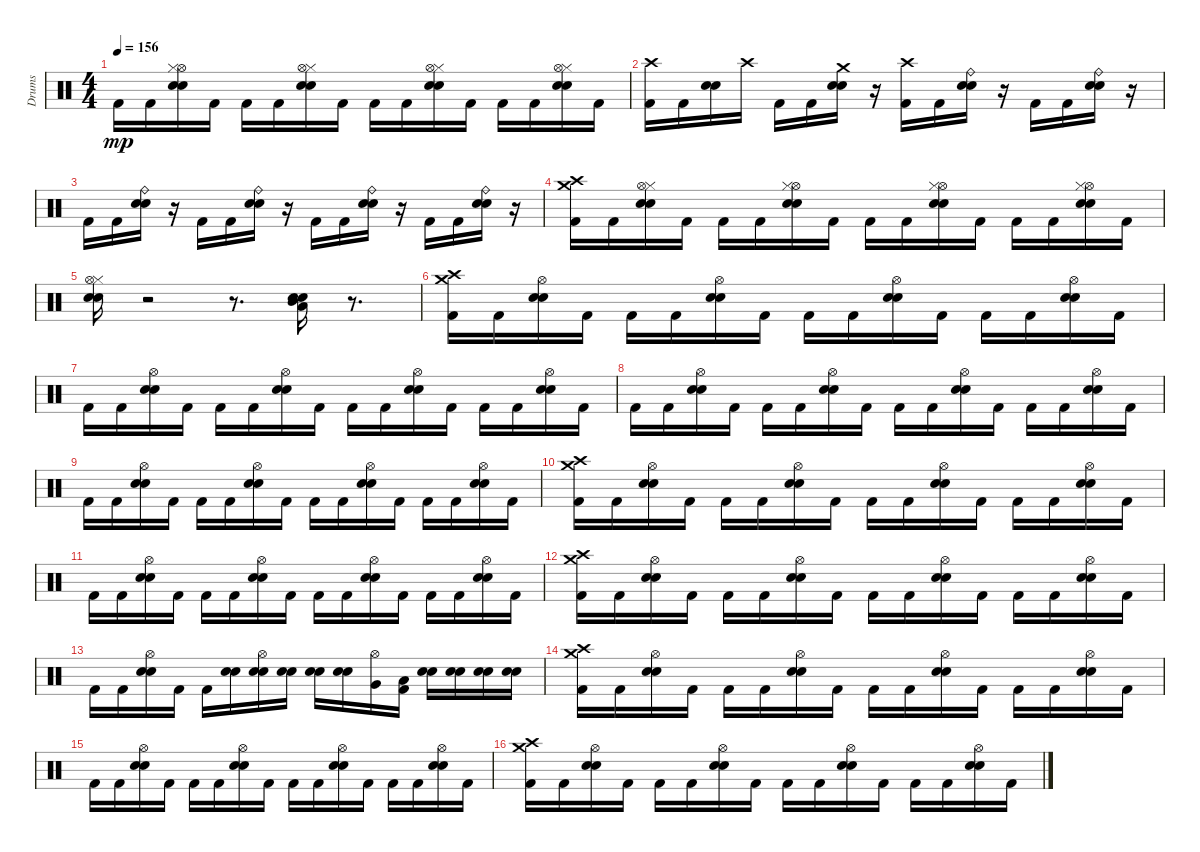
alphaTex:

\track ("Drums" "Drums") {instrument percussion}
\staff {score}
\articulation defaults
\ts (4 4)
\tempo 156
\clef neutral
\ks c "Kick (hit) 2".16{dy mp} "Kick (hit) 2".16
("Electric Snare (hit)" "Snare (hit) 2" "Hi-Hat (open)" "Hi-Hat (closed)").16 "Kick (hit) 2".16 "Kick (hit) 2".16 "Kick (hit) 2".16 ("Electric Snare (hit)" "Hi-Hat (closed)" "Hi-Hat (open)" "Snare (hit) 2").16 "Kick (hit) 2".16 "Kick (hit) 2".16 "Kick (hit) 2".16 ("Hi-Hat (closed)" "Electric Snare (hit)" "Hi-Hat (open)" "Snare (hit) 2").16 "Kick (hit) 2".16 "Kick (hit) 2".16 "Kick (hit) 2".16 ("Hi-Hat (closed)" "Snare (hit) 2" "Electric Snare (hit)" "Hi-Hat (open)").16 "Kick (hit) 2".16 |
("Kick (hit) 2" "Crash high (hit)").16 "Kick (hit) 2".16 ("Snare (hit) 2" "Electric Snare (hit)").16 "Crash high (hit)".16 "Kick (hit) 2".16 "Kick (hit) 2".16 ("Crash medium (hit)" "Snare (hit) 2" "Electric Snare (hit)").16 r.16 ("Crash high (hit)" "Kick (hit) 2").16 "Kick (hit) 2".16 ("Electric Snare (hit)" "Snare (hit) 2" "Ride (bell)").16 r.16 "Kick (hit) 2".16 "Kick (hit) 2".16 ("Ride (bell)" "Snare (hit) 2" "Electric Snare (hit)").16 r.16 |
"Kick (hit) 2".16 "Kick (hit) 2".16 ("Ride (bell)" "Snare (hit) 2" "Electric Snare (hit)").16 r.16 "Kick (hit) 2".16 "Kick (hit) 2".16 ("Ride (bell)" "Snare (hit) 2" "Electric Snare (hit)").16 r.16 "Kick (hit) 2".16 "Kick (hit) 2".16 ("Electric Snare (hit)" "Snare (hit) 2" "Ride (bell)").16 r.16 "Kick (hit) 2".16 "Kick (hit) 2".16 ("Snare (hit) 2" "Ride (bell)" "Electric Snare (hit)").16 r.16 |
("Crash medium (hit)" "Crash high (hit)" "Kick (hit) 2").16 "Kick (hit) 2".16 ("Electric Snare (hit)" "Snare (hit) 2" "Hi-Hat (closed)" "Hi-Hat (open)").16 "Kick (hit) 2".16 "Kick (hit) 2".16 "Kick (hit) 2".16 ("Snare (hit) 2" "Electric Snare (hit)" "Hi-Hat (open)" "Hi-Hat (closed)").16 "Kick (hit) 2".16 "Kick (hit) 2".16 "Kick (hit) 2".16 ("Hi-Hat (open)" "Hi-Hat (closed)" "Snare (hit) 2" "Electric Snare (hit)").16 "Kick (hit) 2".16 "Kick (hit) 2".16 "Kick (hit) 2".16 ("Hi-Hat (open)" "Snare (hit) 2" "Hi-Hat (closed)" "Electric Snare (hit)").16 "Kick (hit) 2".16 |
("Snare (hit) 2" "Hi-Hat (closed)" "Hi-Hat (open)" "Electric Snare (hit)").16 r.2 r.8{d} ("Electric Snare (hit)" "Mid Tom (hit)" "Low Tom (hit)" "Snare (hit) 2").16 r.8{d} |
("Crash medium (hit)" "Kick (hit) 2" "Crash high (hit)").16 "Kick (hit) 2".16 ("Electric Snare (hit)" "Hi-Hat (open)" "Snare (hit) 2").16 "Kick (hit) 2".16 "Kick (hit) 2".16 "Kick (hit) 2".16 ("Snare (hit) 2" "Electric Snare (hit)" "Hi-Hat (open)").16 "Kick (hit) 2".16 "Kick (hit) 2".16 "Kick (hit) 2".16 ("Snare (hit) 2" "Electric Snare (hit)" "Hi-Hat (open)").16 "Kick (hit) 2".16 "Kick (hit) 2".16 "Kick (hit) 2".16 ("Hi-Hat (open)" "Snare (hit) 2" "Electric Snare (hit)").16 "Kick (hit) 2".16 |
"Kick (hit) 2".16 "Kick (hit) 2".16 ("Electric Snare (hit)" "Snare (hit) 2" "Hi-Hat (open)").16 "Kick (hit) 2".16 "Kick (hit) 2".16 "Kick (hit) 2".16 ("Hi-Hat (open)" "Electric Snare (hit)" "Snare (hit) 2").16 "Kick (hit) 2".16 "Kick (hit) 2".16 "Kick (hit) 2".16 ("Snare (hit) 2" "Electric Snare (hit)" "Hi-Hat (open)").16 "Kick (hit) 2".16 "Kick (hit) 2".16 "Kick (hit) 2".16 ("Snare (hit) 2" "Electric Snare (hit)" "Hi-Hat (open)").16 "Kick (hit) 2".16 |
"Kick (hit) 2".16 "Kick (hit) 2".16 ("Electric Snare (hit)" "Snare (hit) 2" "Hi-Hat (open)").16 "Kick (hit) 2".16 "Kick (hit) 2".16 "Kick (hit) 2".16 ("Electric Snare (hit)" "Hi-Hat (open)" "Snare (hit) 2").16 "Kick (hit) 2".16 "Kick (hit) 2".16 "Kick (hit) 2".16 ("Electric Snare (hit)" "Hi-Hat (open)" "Snare (hit) 2").16 "Kick (hit) 2".16 "Kick (hit) 2".16 "Kick (hit) 2".16 ("Electric Snare (hit)" "Hi-Hat (open)" "Snare (hit) 2").16 "Kick (hit) 2".16 |
"Kick (hit) 2".16 "Kick (hit) 2".16 ("Snare (hit) 2" "Electric Snare (hit)" "Hi-Hat (open)").16 "Kick (hit) 2".16 "Kick (hit) 2".16 "Kick (hit) 2".16 ("Snare (hit) 2" "Hi-Hat (open)" "Electric Snare (hit)").16 "Kick (hit) 2".16 "Kick (hit) 2".16 "Kick (hit) 2".16 ("Electric Snare (hit)" "Snare (hit) 2" "Hi-Hat (open)").16 "Kick (hit) 2".16 "Kick (hit) 2".16 "Kick (hit) 2".16 ("Hi-Hat (open)" "Snare (hit) 2" "Electric Snare (hit)").16 "Kick (hit) 2".16 |
("Kick (hit) 2" "Crash high (hit)" "Crash medium (hit)").16 "Kick (hit) 2".16 ("Snare (hit) 2" "Electric Snare (hit)" "Hi-Hat (open)").16 "Kick (hit) 2".16 "Kick (hit) 2".16 "Kick (hit) 2".16 ("Snare (hit) 2" "Hi-Hat (open)" "Electric Snare (hit)").16 "Kick (hit) 2".16 "Kick (hit) 2".16 "Kick (hit) 2".16 ("Electric Snare (hit)" "Hi-Hat (open)" "Snare (hit) 2").16 "Kick (hit) 2".16 "Kick (hit) 2".16 "Kick (hit) 2".16 ("Snare (hit) 2" "Electric Snare (hit)" "Hi-Hat (open)").16 "Kick (hit) 2".16 |
"Kick (hit) 2".16 "Kick (hit) 2".16 ("Hi-Hat (open)" "Electric Snare (hit)" "Snare (hit) 2").16 "Kick (hit) 2".16 "Kick (hit) 2".16 "Kick (hit) 2".16 ("Electric Snare (hit)" "Hi-Hat (open)" "Snare (hit) 2").16 "Kick (hit) 2".16 "Kick (hit) 2".16 "Kick (hit) 2".16 ("Electric Snare (hit)" "Snare (hit) 2" "Hi-Hat (open)").16 "Kick (hit) 2".16 "Kick (hit) 2".16 "Kick (hit) 2".16 ("Hi-Hat (open)" "Electric Snare (hit)" "Snare (hit) 2").16 "Kick (hit) 2".16 |
("Kick (hit) 2" "Crash medium (hit)" "Crash high (hit)").16 "Kick (hit) 2".16 ("Snare (hit) 2" "Hi-Hat (open)" "Electric Snare (hit)").16 "Kick (hit) 2".16 "Kick (hit) 2".16 "Kick (hit) 2".16 ("Snare (hit) 2" "Electric Snare (hit)" "Hi-Hat (open)").16 "Kick (hit) 2".16 "Kick (hit) 2".16 "Kick (hit) 2".16 ("Snare (hit) 2" "Electric Snare (hit)" "Hi-Hat (open)").16 "Kick (hit) 2".16 "Kick (hit) 2".16 "Kick (hit) 2".16 ("Snare (hit) 2" "Hi-Hat (open)" "Electric Snare (hit)").16 "Kick (hit) 2".16 |
"Kick (hit) 2".16 "Kick (hit) 2".16 ("Hi-Hat (open)" "Snare (hit) 2" "Electric Snare (hit)").16 "Kick (hit) 2".16 "Kick (hit) 2".16 ("Electric Snare (hit)" "Snare (hit) 2").16 ("Snare (hit) 2" "Hi-Hat (open)" "Electric Snare (hit)").16 ("Electric Snare (hit)" "Snare (hit) 2").16 ("Electric Snare (hit)" "Snare (hit) 2").16 ("Electric Snare (hit)" "Snare (hit) 2").16 ("Hi-Hat (open)" "Very Low Tom (hit)").16 ("Low Floor Tom (hit)" "Kick (hit) 2").16 ("Snare (hit) 2" "Electric Snare (hit)").16 ("Electric Snare (hit)" "Snare (hit) 2").16 ("Electric Snare (hit)" "Snare (hit) 2").16 ("Snare (hit) 2" "Electric Snare (hit)").16 |
("Crash medium (hit)" "Crash high (hit)" "Kick (hit) 2").16 "Kick (hit) 2".16 ("Hi-Hat (open)" "Snare (hit) 2" "Electric Snare (hit)").16 "Kick (hit) 2".16 "Kick (hit) 2".16 "Kick (hit) 2".16 ("Hi-Hat (open)" "Snare (hit) 2" "Electric Snare (hit)").16 "Kick (hit) 2".16 "Kick (hit) 2".16 "Kick (hit) 2".16 ("Hi-Hat (open)" "Electric Snare (hit)" "Snare (hit) 2").16 "Kick (hit) 2".16 "Kick (hit) 2".16 "Kick (hit) 2".16 ("Electric Snare (hit)" "Snare (hit) 2" "Hi-Hat (open)").16 "Kick (hit) 2".16 |
"Kick (hit) 2".16 "Kick (hit) 2".16 ("Snare (hit) 2" "Electric Snare (hit)" "Hi-Hat (open)").16 "Kick (hit) 2".16 "Kick (hit) 2".16 "Kick (hit) 2".16 ("Snare (hit) 2" "Electric Snare (hit)" "Hi-Hat (open)").16 "Kick (hit) 2".16 "Kick (hit) 2".16 "Kick (hit) 2".16 ("Snare (hit) 2" "Hi-Hat (open)" "Electric Snare (hit)").16 "Kick (hit) 2".16 "Kick (hit) 2".16 "Kick (hit) 2".16 ("Hi-Hat (open)" "Snare (hit) 2" "Electric Snare (hit)").16 "Kick (hit) 2".16 |
("Crash high (hit)" "Crash medium (hit)" "Kick (hit) 2").16 "Kick (hit) 2".16 ("Hi-Hat (open)" "Snare (hit) 2" "Electric Snare (hit)").16 "Kick (hit) 2".16 "Kick (hit) 2".16 "Kick (hit) 2".16 ("Snare (hit) 2" "Electric Snare (hit)" "Hi-Hat (open)").16 "Kick (hit) 2".16 "Kick (hit) 2".16 "Kick (hit) 2".16 ("Hi-Hat (open)" "Snare (hit) 2" "Electric Snare (hit)").16 "Kick (hit) 2".16 "Kick (hit) 2".16 "Kick (hit) 2".16 ("Snare (hit) 2" "Hi-Hat (open)" "Electric Snare (hit)").16 "Kick (hit) 2".16
